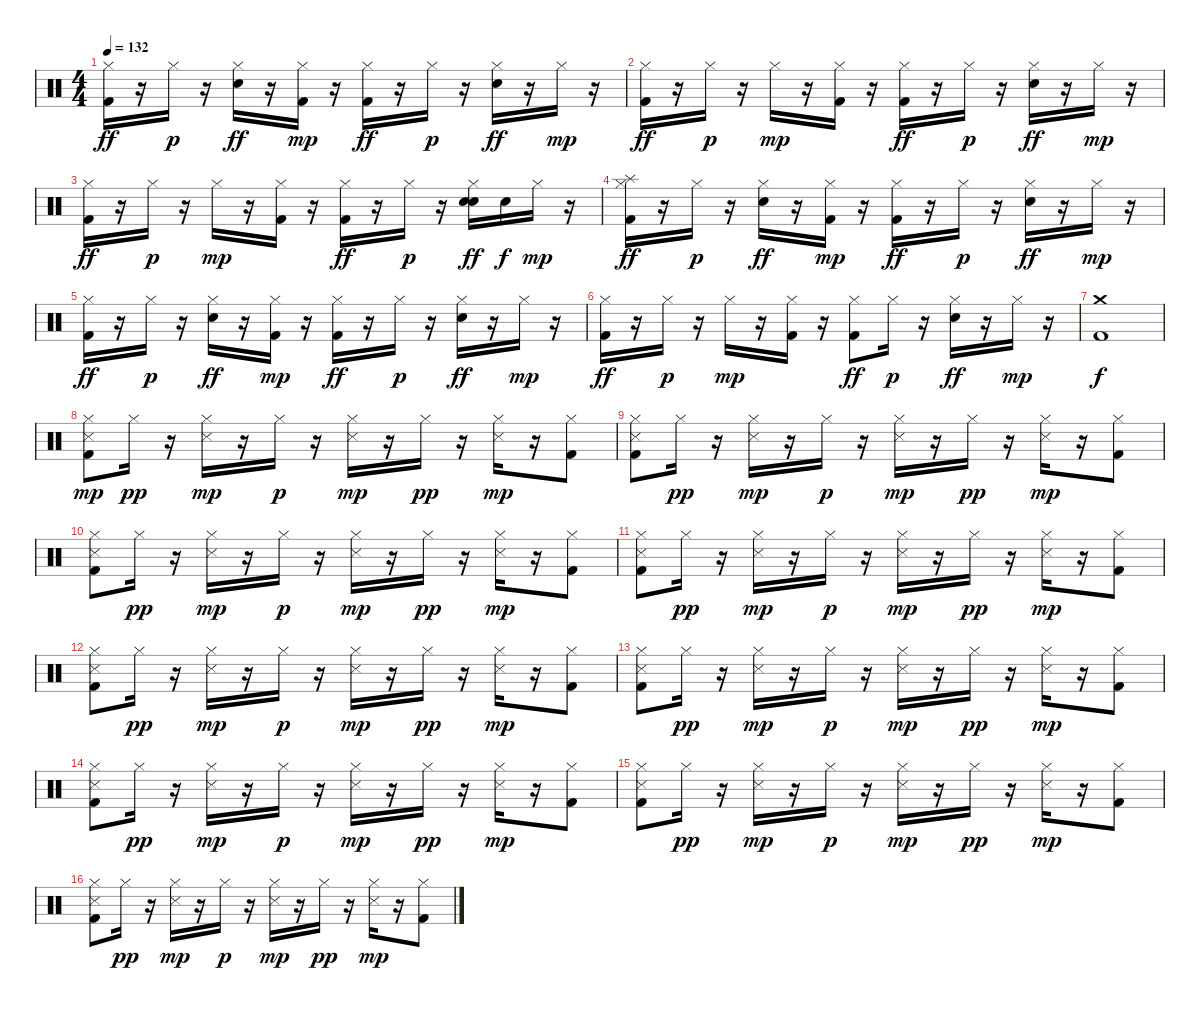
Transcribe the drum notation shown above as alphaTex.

\track "" {instrument percussion}
\staff {score}
\articulation defaults
\ts (4 4)
\tempo 132
\clef neutral
\ks c
("Hi-Hat (closed)" "Kick (hit) 2").16{dy ff} r.16 "Hi-Hat (closed)".16{dy p} r.16 ("Hi-Hat (closed)" "Snare (hit) 2").16{dy ff} r.16 ("Kick (hit) 2" "Hi-Hat (closed)").16{dy mp} r.16 ("Hi-Hat (closed)" "Kick (hit) 2").16{dy ff} r.16 "Hi-Hat (closed)".16{dy p} r.16 ("Hi-Hat (closed)" "Snare (hit) 2").16{dy ff} r.16 "Hi-Hat (closed)".16{dy mp} r.16 |
("Hi-Hat (closed)" "Kick (hit) 2").16{dy ff} r.16 "Hi-Hat (closed)".16{dy p} r.16 "Hi-Hat (closed)".16{dy mp} r.16 ("Kick (hit) 2" "Hi-Hat (closed)").16 r.16 ("Hi-Hat (closed)" "Kick (hit) 2").16{dy ff} r.16 "Hi-Hat (closed)".16{dy p} r.16 ("Hi-Hat (closed)" "Snare (hit) 2").16{dy ff} r.16 "Hi-Hat (closed)".16{dy mp} r.16 |
("Hi-Hat (closed)" "Kick (hit) 2").16{dy ff} r.16 "Hi-Hat (closed)".16{dy p} r.16 "Hi-Hat (closed)".16{dy mp} r.16 ("Kick (hit) 2" "Hi-Hat (closed)").16 r.16 ("Hi-Hat (closed)" "Kick (hit) 2").16{dy ff} r.16 "Hi-Hat (closed)".16{dy p} r.16 ("Hi-Hat (closed)" "Snare (hit) 2" "Snare (hit) 2").16{dy ff} "Snare (hit) 2".16{dy f} "Hi-Hat (closed)".16{dy mp} r.16 |
("Splash (hit)" "Hi-Hat (closed)" "Kick (hit) 2").16{dy ff} r.16 "Hi-Hat (closed)".16{dy p} r.16 ("Hi-Hat (closed)" "Snare (hit) 2").16{dy ff} r.16 ("Kick (hit) 2" "Hi-Hat (closed)").16{dy mp} r.16 ("Hi-Hat (closed)" "Kick (hit) 2").16{dy ff} r.16 "Hi-Hat (closed)".16{dy p} r.16 ("Hi-Hat (closed)" "Snare (hit) 2").16{dy ff} r.16 "Hi-Hat (closed)".16{dy mp} r.16 |
("Hi-Hat (closed)" "Kick (hit) 2").16{dy ff} r.16 "Hi-Hat (closed)".16{dy p} r.16 ("Hi-Hat (closed)" "Snare (hit) 2").16{dy ff} r.16 ("Kick (hit) 2" "Hi-Hat (closed)").16{dy mp} r.16 ("Hi-Hat (closed)" "Kick (hit) 2").16{dy ff} r.16 "Hi-Hat (closed)".16{dy p} r.16 ("Hi-Hat (closed)" "Snare (hit) 2").16{dy ff} r.16 "Hi-Hat (closed)".16{dy mp} r.16 |
("Hi-Hat (closed)" "Kick (hit) 2").16{dy ff} r.16 "Hi-Hat (closed)".16{dy p} r.16 "Hi-Hat (closed)".16{dy mp} r.16 ("Kick (hit) 2" "Hi-Hat (closed)").16 r.16 ("Hi-Hat (closed)" "Kick (hit) 2").8{dy ff} "Hi-Hat (closed)".16{dy p} r.16 ("Hi-Hat (closed)" "Snare (hit) 2").16{dy ff} r.16 "Hi-Hat (closed)".16{dy mp} r.16 |
("Kick (hit) 2" "Crash medium (hit)").1{dy f} |
("Snare (side stick) 3" "Hi-Hat (closed)" "Kick (hit) 2").8{dy mp} "Hi-Hat (closed)".16{dy pp} r.16 ("Snare (side stick) 3" "Hi-Hat (closed)").16{dy mp} r.16 "Hi-Hat (closed)".16{dy p} r.16 ("Snare (side stick) 3" "Hi-Hat (closed)").16{dy mp} r.16 "Hi-Hat (closed)".16{dy pp} r.16 ("Snare (side stick) 3" "Hi-Hat (closed)").16{dy mp} r.16 ("Hi-Hat (closed)" "Kick (hit) 2").8 |
("Snare (side stick) 3" "Hi-Hat (closed)" "Kick (hit) 2").8 "Hi-Hat (closed)".16{dy pp} r.16 ("Snare (side stick) 3" "Hi-Hat (closed)").16{dy mp} r.16 "Hi-Hat (closed)".16{dy p} r.16 ("Snare (side stick) 3" "Hi-Hat (closed)").16{dy mp} r.16 "Hi-Hat (closed)".16{dy pp} r.16 ("Snare (side stick) 3" "Hi-Hat (closed)").16{dy mp} r.16 ("Hi-Hat (closed)" "Kick (hit) 2").8 |
("Snare (side stick) 3" "Hi-Hat (closed)" "Kick (hit) 2").8 "Hi-Hat (closed)".16{dy pp} r.16 ("Snare (side stick) 3" "Hi-Hat (closed)").16{dy mp} r.16 "Hi-Hat (closed)".16{dy p} r.16 ("Snare (side stick) 3" "Hi-Hat (closed)").16{dy mp} r.16 "Hi-Hat (closed)".16{dy pp} r.16 ("Snare (side stick) 3" "Hi-Hat (closed)").16{dy mp} r.16 ("Hi-Hat (closed)" "Kick (hit) 2").8 |
("Snare (side stick) 3" "Hi-Hat (closed)" "Kick (hit) 2").8 "Hi-Hat (closed)".16{dy pp} r.16 ("Snare (side stick) 3" "Hi-Hat (closed)").16{dy mp} r.16 "Hi-Hat (closed)".16{dy p} r.16 ("Snare (side stick) 3" "Hi-Hat (closed)").16{dy mp} r.16 "Hi-Hat (closed)".16{dy pp} r.16 ("Snare (side stick) 3" "Hi-Hat (closed)").16{dy mp} r.16 ("Hi-Hat (closed)" "Kick (hit) 2").8 |
("Snare (side stick) 3" "Hi-Hat (closed)" "Kick (hit) 2").8 "Hi-Hat (closed)".16{dy pp} r.16 ("Snare (side stick) 3" "Hi-Hat (closed)").16{dy mp} r.16 "Hi-Hat (closed)".16{dy p} r.16 ("Snare (side stick) 3" "Hi-Hat (closed)").16{dy mp} r.16 "Hi-Hat (closed)".16{dy pp} r.16 ("Snare (side stick) 3" "Hi-Hat (closed)").16{dy mp} r.16 ("Hi-Hat (closed)" "Kick (hit) 2").8 |
("Snare (side stick) 3" "Hi-Hat (closed)" "Kick (hit) 2").8 "Hi-Hat (closed)".16{dy pp} r.16 ("Snare (side stick) 3" "Hi-Hat (closed)").16{dy mp} r.16 "Hi-Hat (closed)".16{dy p} r.16 ("Snare (side stick) 3" "Hi-Hat (closed)").16{dy mp} r.16 "Hi-Hat (closed)".16{dy pp} r.16 ("Snare (side stick) 3" "Hi-Hat (closed)").16{dy mp} r.16 ("Hi-Hat (closed)" "Kick (hit) 2").8 |
("Snare (side stick) 3" "Hi-Hat (closed)" "Kick (hit) 2").8 "Hi-Hat (closed)".16{dy pp} r.16 ("Snare (side stick) 3" "Hi-Hat (closed)").16{dy mp} r.16 "Hi-Hat (closed)".16{dy p} r.16 ("Snare (side stick) 3" "Hi-Hat (closed)").16{dy mp} r.16 "Hi-Hat (closed)".16{dy pp} r.16 ("Snare (side stick) 3" "Hi-Hat (closed)").16{dy mp} r.16 ("Hi-Hat (closed)" "Kick (hit) 2").8 |
("Snare (side stick) 3" "Hi-Hat (closed)" "Kick (hit) 2").8 "Hi-Hat (closed)".16{dy pp} r.16 ("Snare (side stick) 3" "Hi-Hat (closed)").16{dy mp} r.16 "Hi-Hat (closed)".16{dy p} r.16 ("Snare (side stick) 3" "Hi-Hat (closed)").16{dy mp} r.16 "Hi-Hat (closed)".16{dy pp} r.16 ("Snare (side stick) 3" "Hi-Hat (closed)").16{dy mp} r.16 ("Hi-Hat (closed)" "Kick (hit) 2").8 |
("Snare (side stick) 3" "Hi-Hat (closed)" "Kick (hit) 2").8 "Hi-Hat (closed)".16{dy pp} r.16 ("Snare (side stick) 3" "Hi-Hat (closed)").16{dy mp} r.16 "Hi-Hat (closed)".16{dy p} r.16 ("Snare (side stick) 3" "Hi-Hat (closed)").16{dy mp} r.16 "Hi-Hat (closed)".16{dy pp} r.16 ("Snare (side stick) 3" "Hi-Hat (closed)").16{dy mp} r.16 ("Hi-Hat (closed)" "Kick (hit) 2").8
